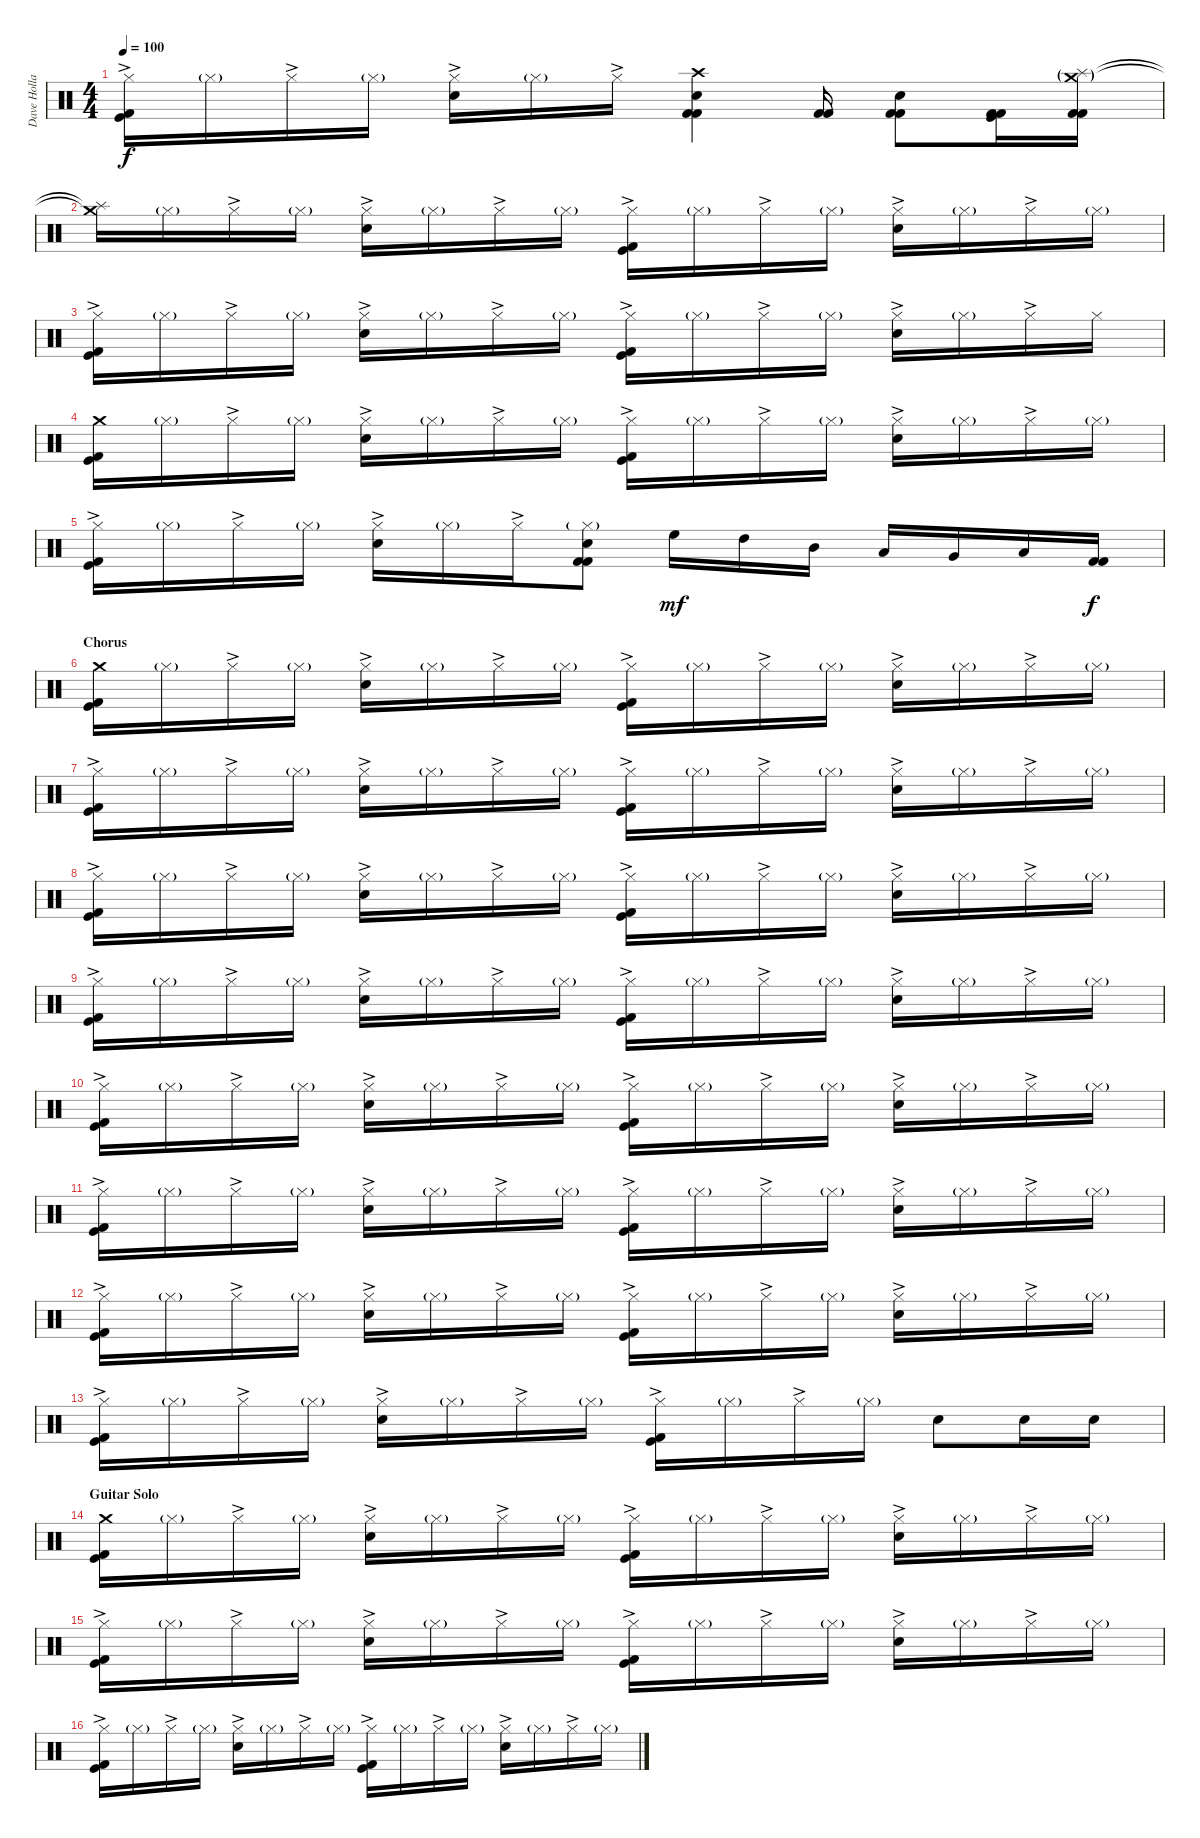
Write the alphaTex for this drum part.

\track ("Dave Holland" "Dave Holla") {instrument percussion}
\staff {score}
\articulation defaults
\ts (4 4)
\tempo 100
\clef neutral
\ks c
("Hi-Hat (closed)"{ac} "Kick (hit)" "Kick (hit) 2").16{dy f} "Hi-Hat (closed)"{g}.16 "Hi-Hat (closed)"{ac}.16 "Hi-Hat (closed)"{g}.16 ("Hi-Hat (closed)"{ac} "Electric Snare (hit)").16 "Hi-Hat (closed)"{g}.16 "Hi-Hat (closed)"{ac}.16 ("Crash high (hit)" "Electric Snare (hit)" "Kick (hit) 2" "Kick (hit) 2").4 ("Kick (hit) 2" "Kick (hit) 2").16 ("Electric Snare (hit)" "Kick (hit) 2" "Kick (hit) 2").8 ("Kick (hit) 2" "Kick (hit)" "Kick (hit) 2").16 ("Crash medium (hit)"{g} "Splash (hit)"{g} "Kick (hit) 2" "Kick (hit) 2").16 |
("Crash medium (hit)"{t} "Splash (hit)"{t}).16 "Hi-Hat (closed)"{g}.16 "Hi-Hat (closed)"{ac}.16 "Hi-Hat (closed)"{g}.16 ("Hi-Hat (closed)"{ac} "Electric Snare (hit)").16 "Hi-Hat (closed)"{g}.16 "Hi-Hat (closed)"{ac}.16 "Hi-Hat (closed)"{g}.16 ("Hi-Hat (closed)"{ac} "Kick (hit)" "Kick (hit) 2").16 "Hi-Hat (closed)"{g}.16 "Hi-Hat (closed)"{ac}.16 "Hi-Hat (closed)"{g}.16 ("Hi-Hat (closed)"{ac} "Electric Snare (hit)").16 "Hi-Hat (closed)"{g}.16 "Hi-Hat (closed)"{ac}.16 "Hi-Hat (closed)"{g}.16 |
("Hi-Hat (closed)"{ac} "Kick (hit)" "Kick (hit) 2").16 "Hi-Hat (closed)"{g}.16 "Hi-Hat (closed)"{ac}.16 "Hi-Hat (closed)"{g}.16 ("Hi-Hat (closed)"{ac} "Electric Snare (hit)").16 "Hi-Hat (closed)"{g}.16 "Hi-Hat (closed)"{ac}.16 "Hi-Hat (closed)"{g}.16 ("Hi-Hat (closed)"{ac} "Kick (hit)" "Kick (hit) 2").16 "Hi-Hat (closed)"{g}.16 "Hi-Hat (closed)"{ac}.16 "Hi-Hat (closed)"{g}.16 ("Hi-Hat (closed)"{ac} "Electric Snare (hit)").16 "Hi-Hat (closed)"{g}.16 "Hi-Hat (closed)"{ac}.16 "Hi-Hat (closed)".16 |
("Crash medium (hit)" "Kick (hit)" "Kick (hit) 2").16 "Hi-Hat (closed)"{g}.16 "Hi-Hat (closed)"{ac}.16 "Hi-Hat (closed)"{g}.16 ("Hi-Hat (closed)"{ac} "Electric Snare (hit)").16 "Hi-Hat (closed)"{g}.16 "Hi-Hat (closed)"{ac}.16 "Hi-Hat (closed)"{g}.16 ("Hi-Hat (closed)"{ac} "Kick (hit)" "Kick (hit) 2").16 "Hi-Hat (closed)"{g}.16 "Hi-Hat (closed)"{ac}.16 "Hi-Hat (closed)"{g}.16 ("Hi-Hat (closed)"{ac} "Electric Snare (hit)").16 "Hi-Hat (closed)"{g}.16 "Hi-Hat (closed)"{ac}.16 "Hi-Hat (closed)"{g}.16 |
("Hi-Hat (closed)"{ac} "Kick (hit)" "Kick (hit) 2").16 "Hi-Hat (closed)"{g}.16 "Hi-Hat (closed)"{ac}.16 "Hi-Hat (closed)"{g}.16 ("Hi-Hat (closed)"{ac} "Electric Snare (hit)").16 "Hi-Hat (closed)"{g}.16 "Hi-Hat (closed)"{ac}.16 ("Hi-Hat (closed)"{g} "Electric Snare (hit)" "Kick (hit) 2" "Kick (hit) 2").8 "High Floor Tom (hit)".16{dy mf} "High Tom (hit)".16 "Mid Tom (hit)".16 "Low Tom (hit)".16 "Very Low Tom (hit)".16 "Low Floor Tom (hit)".16 ("Kick (hit) 2" "Kick (hit) 2").16{dy f} |
\section ("" "Chorus")
("Crash medium (hit)" "Kick (hit)" "Kick (hit) 2").16 "Hi-Hat (closed)"{g}.16 "Hi-Hat (closed)"{ac}.16 "Hi-Hat (closed)"{g}.16 ("Hi-Hat (closed)"{ac} "Electric Snare (hit)").16 "Hi-Hat (closed)"{g}.16 "Hi-Hat (closed)"{ac}.16 "Hi-Hat (closed)"{g}.16 ("Hi-Hat (closed)"{ac} "Kick (hit)" "Kick (hit) 2").16 "Hi-Hat (closed)"{g}.16 "Hi-Hat (closed)"{ac}.16 "Hi-Hat (closed)"{g}.16 ("Hi-Hat (closed)"{ac} "Electric Snare (hit)").16 "Hi-Hat (closed)"{g}.16 "Hi-Hat (closed)"{ac}.16 "Hi-Hat (closed)"{g}.16 |
("Hi-Hat (closed)"{ac} "Kick (hit)" "Kick (hit) 2").16 "Hi-Hat (closed)"{g}.16 "Hi-Hat (closed)"{ac}.16 "Hi-Hat (closed)"{g}.16 ("Hi-Hat (closed)"{ac} "Electric Snare (hit)").16 "Hi-Hat (closed)"{g}.16 "Hi-Hat (closed)"{ac}.16 "Hi-Hat (closed)"{g}.16 ("Hi-Hat (closed)"{ac} "Kick (hit)" "Kick (hit) 2").16 "Hi-Hat (closed)"{g}.16 "Hi-Hat (closed)"{ac}.16 "Hi-Hat (closed)"{g}.16 ("Hi-Hat (closed)"{ac} "Electric Snare (hit)").16 "Hi-Hat (closed)"{g}.16 "Hi-Hat (closed)"{ac}.16 "Hi-Hat (closed)"{g}.16 |
("Hi-Hat (closed)"{ac} "Kick (hit)" "Kick (hit) 2").16 "Hi-Hat (closed)"{g}.16 "Hi-Hat (closed)"{ac}.16 "Hi-Hat (closed)"{g}.16 ("Hi-Hat (closed)"{ac} "Electric Snare (hit)").16 "Hi-Hat (closed)"{g}.16 "Hi-Hat (closed)"{ac}.16 "Hi-Hat (closed)"{g}.16 ("Hi-Hat (closed)"{ac} "Kick (hit)" "Kick (hit) 2").16 "Hi-Hat (closed)"{g}.16 "Hi-Hat (closed)"{ac}.16 "Hi-Hat (closed)"{g}.16 ("Hi-Hat (closed)"{ac} "Electric Snare (hit)").16 "Hi-Hat (closed)"{g}.16 "Hi-Hat (closed)"{ac}.16 "Hi-Hat (closed)"{g}.16 |
("Hi-Hat (closed)"{ac} "Kick (hit)" "Kick (hit) 2").16 "Hi-Hat (closed)"{g}.16 "Hi-Hat (closed)"{ac}.16 "Hi-Hat (closed)"{g}.16 ("Hi-Hat (closed)"{ac} "Electric Snare (hit)").16 "Hi-Hat (closed)"{g}.16 "Hi-Hat (closed)"{ac}.16 "Hi-Hat (closed)"{g}.16 ("Hi-Hat (closed)"{ac} "Kick (hit)" "Kick (hit) 2").16 "Hi-Hat (closed)"{g}.16 "Hi-Hat (closed)"{ac}.16 "Hi-Hat (closed)"{g}.16 ("Hi-Hat (closed)"{ac} "Electric Snare (hit)").16 "Hi-Hat (closed)"{g}.16 "Hi-Hat (closed)"{ac}.16 "Hi-Hat (closed)"{g}.16 |
("Hi-Hat (closed)"{ac} "Kick (hit)" "Kick (hit) 2").16 "Hi-Hat (closed)"{g}.16 "Hi-Hat (closed)"{ac}.16 "Hi-Hat (closed)"{g}.16 ("Hi-Hat (closed)"{ac} "Electric Snare (hit)").16 "Hi-Hat (closed)"{g}.16 "Hi-Hat (closed)"{ac}.16 "Hi-Hat (closed)"{g}.16 ("Hi-Hat (closed)"{ac} "Kick (hit)" "Kick (hit) 2").16 "Hi-Hat (closed)"{g}.16 "Hi-Hat (closed)"{ac}.16 "Hi-Hat (closed)"{g}.16 ("Hi-Hat (closed)"{ac} "Electric Snare (hit)").16 "Hi-Hat (closed)"{g}.16 "Hi-Hat (closed)"{ac}.16 "Hi-Hat (closed)"{g}.16 |
("Hi-Hat (closed)"{ac} "Kick (hit)" "Kick (hit) 2").16 "Hi-Hat (closed)"{g}.16 "Hi-Hat (closed)"{ac}.16 "Hi-Hat (closed)"{g}.16 ("Hi-Hat (closed)"{ac} "Electric Snare (hit)").16 "Hi-Hat (closed)"{g}.16 "Hi-Hat (closed)"{ac}.16 "Hi-Hat (closed)"{g}.16 ("Hi-Hat (closed)"{ac} "Kick (hit)" "Kick (hit) 2").16 "Hi-Hat (closed)"{g}.16 "Hi-Hat (closed)"{ac}.16 "Hi-Hat (closed)"{g}.16 ("Hi-Hat (closed)"{ac} "Electric Snare (hit)").16 "Hi-Hat (closed)"{g}.16 "Hi-Hat (closed)"{ac}.16 "Hi-Hat (closed)"{g}.16 |
("Hi-Hat (closed)"{ac} "Kick (hit)" "Kick (hit) 2").16 "Hi-Hat (closed)"{g}.16 "Hi-Hat (closed)"{ac}.16 "Hi-Hat (closed)"{g}.16 ("Hi-Hat (closed)"{ac} "Electric Snare (hit)").16 "Hi-Hat (closed)"{g}.16 "Hi-Hat (closed)"{ac}.16 "Hi-Hat (closed)"{g}.16 ("Hi-Hat (closed)"{ac} "Kick (hit)" "Kick (hit) 2").16 "Hi-Hat (closed)"{g}.16 "Hi-Hat (closed)"{ac}.16 "Hi-Hat (closed)"{g}.16 ("Hi-Hat (closed)"{ac} "Electric Snare (hit)").16 "Hi-Hat (closed)"{g}.16 "Hi-Hat (closed)"{ac}.16 "Hi-Hat (closed)"{g}.16 |
("Hi-Hat (closed)"{ac} "Kick (hit)" "Kick (hit) 2").16 "Hi-Hat (closed)"{g}.16 "Hi-Hat (closed)"{ac}.16 "Hi-Hat (closed)"{g}.16 ("Hi-Hat (closed)"{ac} "Electric Snare (hit)").16 "Hi-Hat (closed)"{g}.16 "Hi-Hat (closed)"{ac}.16 "Hi-Hat (closed)"{g}.16 ("Hi-Hat (closed)"{ac} "Kick (hit)" "Kick (hit) 2").16 "Hi-Hat (closed)"{g}.16 "Hi-Hat (closed)"{ac}.16 "Hi-Hat (closed)"{g}.16 "Electric Snare (hit)".8 "Electric Snare (hit)".16 "Electric Snare (hit)".16 |
\section ("" "Guitar Solo")
("Crash medium (hit)" "Kick (hit)" "Kick (hit) 2").16 "Hi-Hat (closed)"{g}.16 "Hi-Hat (closed)"{ac}.16 "Hi-Hat (closed)"{g}.16 ("Hi-Hat (closed)"{ac} "Electric Snare (hit)").16 "Hi-Hat (closed)"{g}.16 "Hi-Hat (closed)"{ac}.16 "Hi-Hat (closed)"{g}.16 ("Hi-Hat (closed)"{ac} "Kick (hit)" "Kick (hit) 2").16 "Hi-Hat (closed)"{g}.16 "Hi-Hat (closed)"{ac}.16 "Hi-Hat (closed)"{g}.16 ("Hi-Hat (closed)"{ac} "Electric Snare (hit)").16 "Hi-Hat (closed)"{g}.16 "Hi-Hat (closed)"{ac}.16 "Hi-Hat (closed)"{g}.16 |
("Hi-Hat (closed)"{ac} "Kick (hit)" "Kick (hit) 2").16 "Hi-Hat (closed)"{g}.16 "Hi-Hat (closed)"{ac}.16 "Hi-Hat (closed)"{g}.16 ("Hi-Hat (closed)"{ac} "Electric Snare (hit)").16 "Hi-Hat (closed)"{g}.16 "Hi-Hat (closed)"{ac}.16 "Hi-Hat (closed)"{g}.16 ("Hi-Hat (closed)"{ac} "Kick (hit)" "Kick (hit) 2").16 "Hi-Hat (closed)"{g}.16 "Hi-Hat (closed)"{ac}.16 "Hi-Hat (closed)"{g}.16 ("Hi-Hat (closed)"{ac} "Electric Snare (hit)").16 "Hi-Hat (closed)"{g}.16 "Hi-Hat (closed)"{ac}.16 "Hi-Hat (closed)"{g}.16 |
("Hi-Hat (closed)"{ac} "Kick (hit)" "Kick (hit) 2").16 "Hi-Hat (closed)"{g}.16 "Hi-Hat (closed)"{ac}.16 "Hi-Hat (closed)"{g}.16 ("Hi-Hat (closed)"{ac} "Electric Snare (hit)").16 "Hi-Hat (closed)"{g}.16 "Hi-Hat (closed)"{ac}.16 "Hi-Hat (closed)"{g}.16 ("Hi-Hat (closed)"{ac} "Kick (hit)" "Kick (hit) 2").16 "Hi-Hat (closed)"{g}.16 "Hi-Hat (closed)"{ac}.16 "Hi-Hat (closed)"{g}.16 ("Hi-Hat (closed)"{ac} "Electric Snare (hit)").16 "Hi-Hat (closed)"{g}.16 "Hi-Hat (closed)"{ac}.16 "Hi-Hat (closed)"{g}.16
